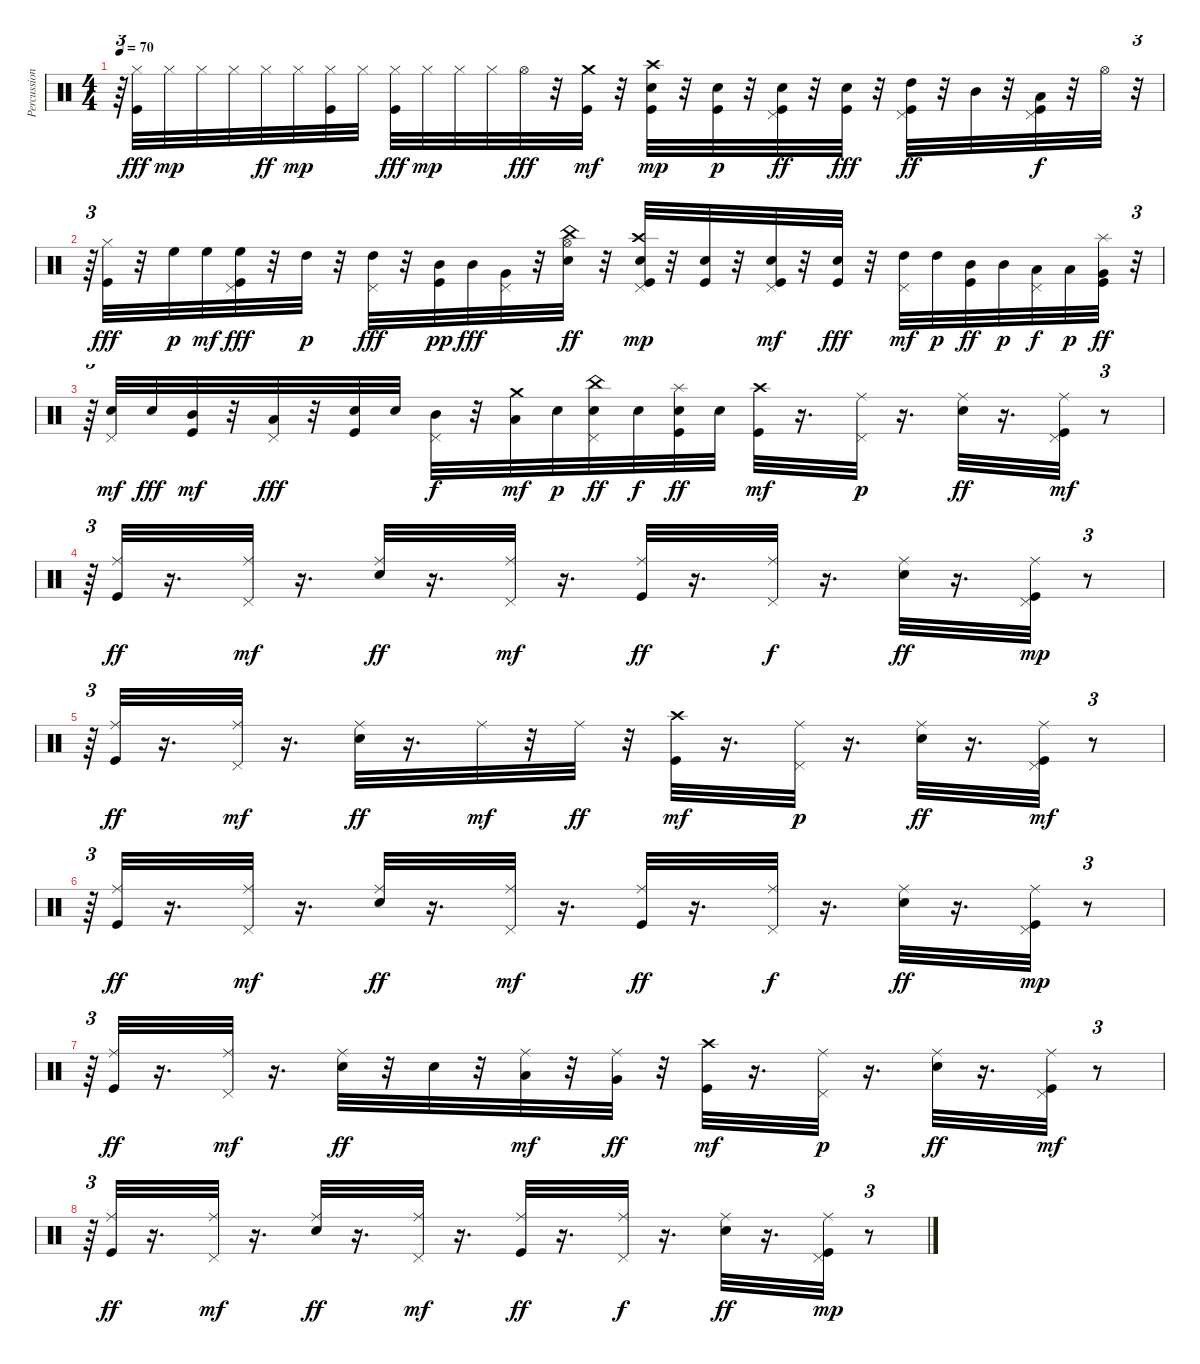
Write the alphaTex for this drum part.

\track ("Percussioni" "Percussion") {instrument percussion}
\staff {score}
\articulation defaults
\ts (4 4)
\tempo 70
\clef neutral
\ks c
r.64{tu (3 2) dy mp} ("Kick (hit)" "Hi-Hat (closed)").32{dy fff} "Hi-Hat (closed)".32{dy mp} "Hi-Hat (closed)".32 "Hi-Hat (closed)".32 "Hi-Hat (closed)".32{dy ff} "Hi-Hat (closed)".32{dy mp} ("Hi-Hat (closed)" "Kick (hit)").32 "Hi-Hat (closed)".32 ("Kick (hit)" "Hi-Hat (closed)").32{dy fff} "Hi-Hat (closed)".32{dy mp} "Hi-Hat (closed)".32 "Hi-Hat (closed)".32 "Hi-Hat (open)".32{dy fff} r.32 ("Kick (hit)" "Crash medium (hit)").32{dy mf} r.32 ("Kick (hit)" "Electric Snare (hit)" "Crash high (hit)").32{dy mp} r.32 ("Kick (hit)" "Electric Snare (hit)").32{dy p} r.32 ("Kick (hit)" "Electric Snare (hit)" "Pedal Hi-Hat (hit)").32{dy ff} r.32 ("Kick (hit)" "Electric Snare (hit)").32{dy fff} r.32 ("Kick (hit)" "Pedal Hi-Hat (hit)" "High Tom (hit)").32{dy ff} r.32 "Mid Tom (hit)".32 r.32 ("Kick (hit)" "Pedal Hi-Hat (hit)" "Low Tom (hit)").32{dy f} r.32 "Hi-Hat (open)".32 r.32{tu (3 2)} |
r.64{tu (3 2)} ("Kick (hit)" "Hi-Hat (closed)").32{dy fff} r.32 "High Floor Tom (hit)".32{dy p} "High Floor Tom (hit)".32{dy mf} ("Kick (hit)" "Pedal Hi-Hat (hit)" "High Floor Tom (hit)").32{dy fff} r.32 "High Tom (hit)".32{dy p} r.32 ("Pedal Hi-Hat (hit)" "High Tom (hit)").32{dy fff} r.32 ("Kick (hit)" "Mid Tom (hit)").32{dy pp} "Mid Tom (hit)".32{dy fff} ("Very Low Tom (hit)" "Pedal Hi-Hat (hit)").32 r.32 ("Electric Snare (hit)" "Hi-Hat (open)" "China (hit)").32{dy ff} r.32 ("Kick (hit)" "Electric Snare (hit)" "Pedal Hi-Hat (hit)" "Crash high (hit)").32{dy mp} r.32 ("Kick (hit)" "Electric Snare (hit)").32 r.32 ("Kick (hit)" "Electric Snare (hit)" "Pedal Hi-Hat (hit)").32{dy mf} r.32 ("Kick (hit)" "Electric Snare (hit)").32{dy fff} r.32 ("Pedal Hi-Hat (hit)" "High Tom (hit)").32{dy mf} "High Tom (hit)".32{dy p} ("Kick (hit)" "Mid Tom (hit)").32{dy ff} "Mid Tom (hit)".32{dy p} ("Pedal Hi-Hat (hit)" "Low Tom (hit)").32{dy f} "Low Tom (hit)".32{dy p} ("Kick (hit)" "Very Low Tom (hit)" "Splash (hit)").32{dy ff} r.32{tu (3 2)} |
r.64{tu (3 2)} ("Electric Snare (hit)" "Pedal Hi-Hat (hit)").32{dy mf} "Electric Snare (hit)".32{dy fff} ("Kick (hit)" "Mid Tom (hit)").32{dy mf} r.32 ("Pedal Hi-Hat (hit)" "Low Tom (hit)").32{dy fff} r.32 ("Kick (hit)" "Electric Snare (hit)").32 "Electric Snare (hit)".32 ("Pedal Hi-Hat (hit)" "Mid Tom (hit)").32{dy f} r.32 ("Low Tom (hit)" "Crash medium (hit)").32{dy mf} "Electric Snare (hit)".32{dy p} ("Electric Snare (hit)" "Pedal Hi-Hat (hit)" "China (hit)").32{dy ff} "Electric Snare (hit)".32{dy f} ("Kick (hit)" "Electric Snare (hit)" "Splash (hit)").32{dy ff} "Electric Snare (hit)".32 ("Kick (hit)" "Crash high (hit)").32{dy mf} r.16{d} ("Pedal Hi-Hat (hit)" "Ride (middle)").32{dy p} r.16{d} ("Electric Snare (hit)" "Ride (middle)").32{dy ff} r.16{d} ("Kick (hit)" "Pedal Hi-Hat (hit)" "Ride (middle)").32{dy mf} r.8{tu (3 2)} |
r.64{tu (3 2)} ("Kick (hit)" "Ride (middle)").32{dy ff} r.16{d} ("Pedal Hi-Hat (hit)" "Ride (middle)").32{dy mf} r.16{d} ("Electric Snare (hit)" "Ride (middle)").32{dy ff} r.16{d} ("Pedal Hi-Hat (hit)" "Ride (middle)").32{dy mf} r.16{d} ("Kick (hit)" "Ride (middle)").32{dy ff} r.16{d} ("Pedal Hi-Hat (hit)" "Ride (middle)").32{dy f} r.16{d} ("Electric Snare (hit)" "Ride (middle)").32{dy ff} r.16{d} ("Kick (hit)" "Pedal Hi-Hat (hit)" "Ride (middle)").32{dy mp} r.8{tu (3 2)} |
r.64{tu (3 2)} ("Kick (hit)" "Ride (middle)").32{dy ff} r.16{d} ("Pedal Hi-Hat (hit)" "Ride (middle)").32{dy mf} r.16{d} ("Electric Snare (hit)" "Ride (middle)").32{dy ff} r.16{d} "Ride (middle)".32{dy mf} r.32 "Ride (middle)".32{dy ff} r.32 ("Kick (hit)" "Crash high (hit)").32{dy mf} r.16{d} ("Pedal Hi-Hat (hit)" "Ride (middle)").32{dy p} r.16{d} ("Electric Snare (hit)" "Ride (middle)").32{dy ff} r.16{d} ("Kick (hit)" "Pedal Hi-Hat (hit)" "Ride (middle)").32{dy mf} r.8{tu (3 2)} |
r.64{tu (3 2)} ("Kick (hit)" "Ride (middle)").32{dy ff} r.16{d} ("Pedal Hi-Hat (hit)" "Ride (middle)").32{dy mf} r.16{d} ("Electric Snare (hit)" "Ride (middle)").32{dy ff} r.16{d} ("Pedal Hi-Hat (hit)" "Ride (middle)").32{dy mf} r.16{d} ("Kick (hit)" "Ride (middle)").32{dy ff} r.16{d} ("Pedal Hi-Hat (hit)" "Ride (middle)").32{dy f} r.16{d} ("Electric Snare (hit)" "Ride (middle)").32{dy ff} r.16{d} ("Kick (hit)" "Pedal Hi-Hat (hit)" "Ride (middle)").32{dy mp} r.8{tu (3 2)} |
r.64{tu (3 2)} ("Kick (hit)" "Ride (middle)").32{dy ff} r.16{d} ("Pedal Hi-Hat (hit)" "Ride (middle)").32{dy mf} r.16{d} ("Electric Snare (hit)" "Ride (middle)").32{dy ff} r.32 "Electric Snare (hit)".32 r.32 ("Low Tom (hit)" "Ride (middle)").32{dy mf} r.32 ("Very Low Tom (hit)" "Ride (middle)").32{dy ff} r.32 ("Kick (hit)" "Crash high (hit)").32{dy mf} r.16{d} ("Pedal Hi-Hat (hit)" "Ride (middle)").32{dy p} r.16{d} ("Electric Snare (hit)" "Ride (middle)").32{dy ff} r.16{d} ("Kick (hit)" "Pedal Hi-Hat (hit)" "Ride (middle)").32{dy mf} r.8{tu (3 2)} |
r.64{tu (3 2)} ("Kick (hit)" "Ride (middle)").32{dy ff} r.16{d} ("Pedal Hi-Hat (hit)" "Ride (middle)").32{dy mf} r.16{d} ("Electric Snare (hit)" "Ride (middle)").32{dy ff} r.16{d} ("Pedal Hi-Hat (hit)" "Ride (middle)").32{dy mf} r.16{d} ("Kick (hit)" "Ride (middle)").32{dy ff} r.16{d} ("Pedal Hi-Hat (hit)" "Ride (middle)").32{dy f} r.16{d} ("Electric Snare (hit)" "Ride (middle)").32{dy ff} r.16{d} ("Kick (hit)" "Pedal Hi-Hat (hit)" "Ride (middle)").32{dy mp} r.8{tu (3 2)}
